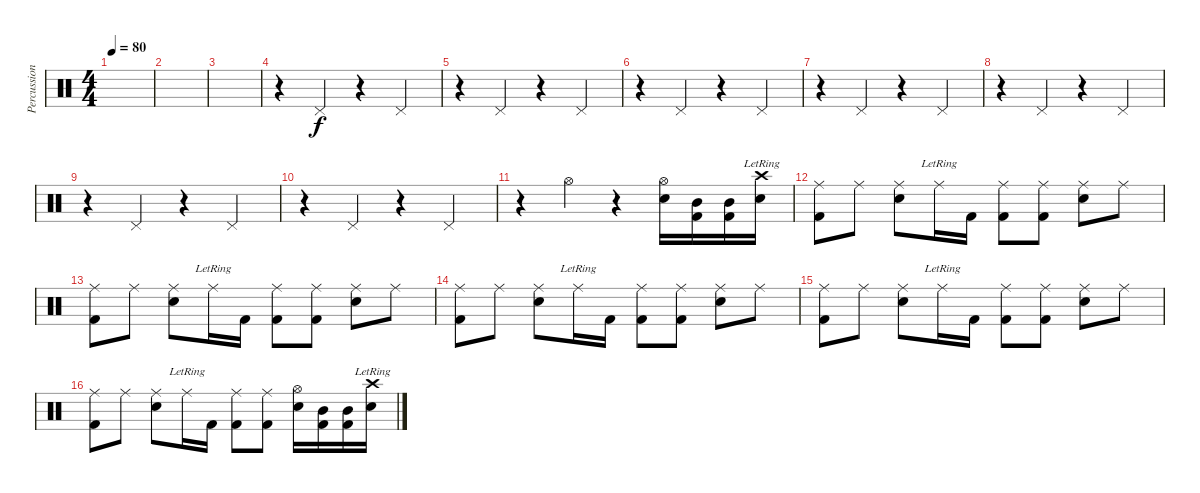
\track ("Percussions" "Percussion") {instrument percussion}
\staff {score}
\articulation defaults
\ts (4 4)
\tempo 80
\clef neutral
\ks c
|
|
|
r.4{volume 9} "Pedal Hi-Hat (hit)".4 r.4 "Pedal Hi-Hat (hit)".4 |
r.4 "Pedal Hi-Hat (hit)".4 r.4 "Pedal Hi-Hat (hit)".4 |
r.4 "Pedal Hi-Hat (hit)".4 r.4 "Pedal Hi-Hat (hit)".4 |
r.4 "Pedal Hi-Hat (hit)".4 r.4 "Pedal Hi-Hat (hit)".4 |
r.4 "Pedal Hi-Hat (hit)".4 r.4 "Pedal Hi-Hat (hit)".4 |
r.4 "Pedal Hi-Hat (hit)".4 r.4 "Pedal Hi-Hat (hit)".4 |
r.4 "Pedal Hi-Hat (hit)".4 r.4 "Pedal Hi-Hat (hit)".4 |
r.4 "Hi-Hat (open)".4{volume 16} r.4 ("Snare (hit) 2" "Hi-Hat (open)").16 ("Kick (hit) 2" "Mid Tom (hit)").16 ("Kick (hit) 2" "Mid Tom (hit)").16 ("Snare (hit) 2" "Crash high (hit)"{lr}).16 |
("Kick (hit) 2" "Ride (middle)").8 "Ride (middle)".8 ("Snare (hit) 2" "Ride (middle)").8 "Ride (middle)"{lr}.16 "Kick (hit) 2".16 ("Kick (hit) 2" "Ride (middle)").8 ("Kick (hit) 2" "Ride (middle)").8 ("Snare (hit) 2" "Ride (middle)").8 "Ride (middle)".8 |
("Kick (hit) 2" "Ride (middle)").8 "Ride (middle)".8 ("Snare (hit) 2" "Ride (middle)").8 "Ride (middle)"{lr}.16 "Kick (hit) 2".16 ("Kick (hit) 2" "Ride (middle)").8 ("Kick (hit) 2" "Ride (middle)").8 ("Snare (hit) 2" "Ride (middle)").8 "Ride (middle)".8 |
("Kick (hit) 2" "Ride (middle)").8 "Ride (middle)".8 ("Snare (hit) 2" "Ride (middle)").8 "Ride (middle)"{lr}.16 "Kick (hit) 2".16 ("Kick (hit) 2" "Ride (middle)").8 ("Kick (hit) 2" "Ride (middle)").8 ("Snare (hit) 2" "Ride (middle)").8 "Ride (middle)".8 |
("Kick (hit) 2" "Ride (middle)").8 "Ride (middle)".8 ("Snare (hit) 2" "Ride (middle)").8 "Ride (middle)"{lr}.16 "Kick (hit) 2".16 ("Kick (hit) 2" "Ride (middle)").8 ("Kick (hit) 2" "Ride (middle)").8 ("Snare (hit) 2" "Ride (middle)").8 "Ride (middle)".8 |
("Kick (hit) 2" "Ride (middle)").8 "Ride (middle)".8 ("Snare (hit) 2" "Ride (middle)").8 "Ride (middle)"{lr}.16 "Kick (hit) 2".16 ("Kick (hit) 2" "Ride (middle)").8 ("Kick (hit) 2" "Ride (middle)").8 ("Snare (hit) 2" "Hi-Hat (open)").16 ("Kick (hit) 2" "Mid Tom (hit)").16 ("Kick (hit) 2" "Mid Tom (hit)").16 ("Snare (hit) 2" "Crash high (hit)"{lr}).16
